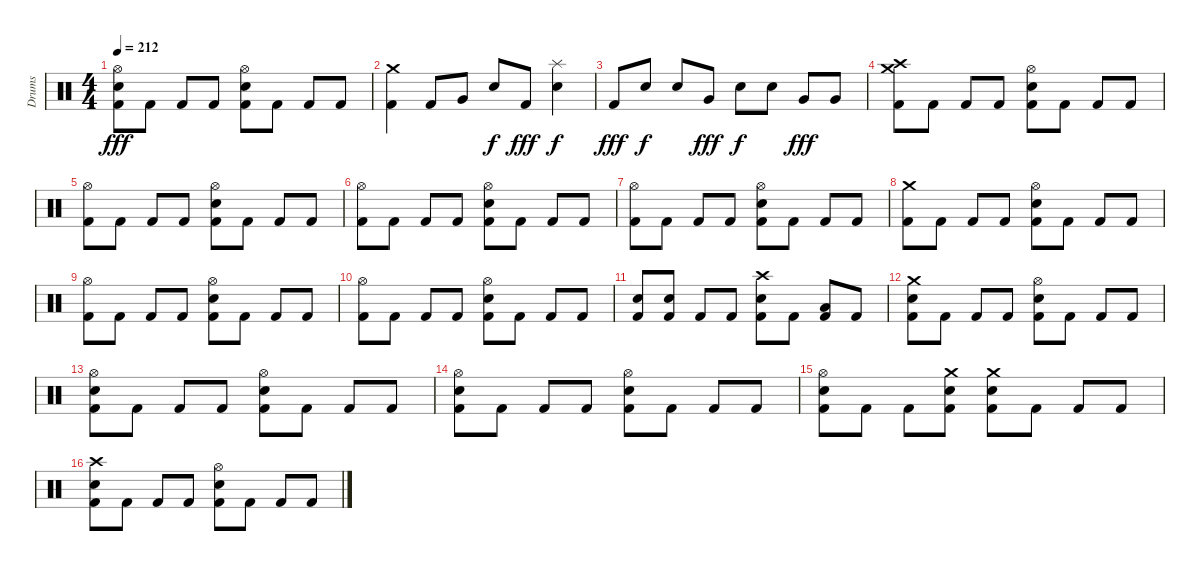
\track ("Drums" "Drums") {instrument percussion}
\staff {score}
\articulation defaults
\ts (4 4)
\tempo 212
\clef neutral
\ks c
("Hi-Hat (open)" "Snare (hit) 2" "Kick (hit) 2").8{dy fff} "Kick (hit) 2".8 "Kick (hit) 2".8 "Kick (hit) 2".8 ("Hi-Hat (open)" "Snare (hit) 2" "Kick (hit) 2").8 "Kick (hit) 2".8 "Kick (hit) 2".8 "Kick (hit) 2".8 |
("Crash medium (hit)" "Kick (hit) 2").4 "Kick (hit) 2".8 "Very Low Tom (hit)".8 "Snare (hit) 2".8{dy f} "Kick (hit) 2".8{dy fff} ("Splash (hit)" "Snare (hit) 2").4{dy f} |
"Kick (hit) 2".8{dy fff} "Snare (hit) 2".8{dy f} "Snare (hit) 2".8 "Very Low Tom (hit)".8{dy fff} "Snare (hit) 2".8{dy f} "Snare (hit) 2".8 "Very Low Tom (hit)".8{dy fff} "Very Low Tom (hit)".8 |
("Crash medium (hit)" "Crash high (hit)" "Kick (hit) 2").8 "Kick (hit) 2".8 "Kick (hit) 2".8 "Kick (hit) 2".8 ("Hi-Hat (open)" "Snare (hit) 2" "Kick (hit) 2").8 "Kick (hit) 2".8 "Kick (hit) 2".8 "Kick (hit) 2".8 |
("Hi-Hat (open)" "Kick (hit) 2").8 "Kick (hit) 2".8 "Kick (hit) 2".8 "Kick (hit) 2".8 ("Hi-Hat (open)" "Snare (hit) 2" "Kick (hit) 2").8 "Kick (hit) 2".8 "Kick (hit) 2".8 "Kick (hit) 2".8 |
("Hi-Hat (open)" "Kick (hit) 2").8 "Kick (hit) 2".8 "Kick (hit) 2".8 "Kick (hit) 2".8 ("Hi-Hat (open)" "Snare (hit) 2" "Kick (hit) 2").8 "Kick (hit) 2".8 "Kick (hit) 2".8 "Kick (hit) 2".8 |
("Hi-Hat (open)" "Kick (hit) 2").8 "Kick (hit) 2".8 "Kick (hit) 2".8 "Kick (hit) 2".8 ("Hi-Hat (open)" "Snare (hit) 2" "Kick (hit) 2").8 "Kick (hit) 2".8 "Kick (hit) 2".8 "Kick (hit) 2".8 |
("Crash medium (hit)" "Kick (hit) 2").8 "Kick (hit) 2".8 "Kick (hit) 2".8 "Kick (hit) 2".8 ("Hi-Hat (open)" "Snare (hit) 2" "Kick (hit) 2").8 "Kick (hit) 2".8 "Kick (hit) 2".8 "Kick (hit) 2".8 |
("Hi-Hat (open)" "Kick (hit) 2").8 "Kick (hit) 2".8 "Kick (hit) 2".8 "Kick (hit) 2".8 ("Hi-Hat (open)" "Snare (hit) 2" "Kick (hit) 2").8 "Kick (hit) 2".8 "Kick (hit) 2".8 "Kick (hit) 2".8 |
("Hi-Hat (open)" "Kick (hit) 2").8 "Kick (hit) 2".8 "Kick (hit) 2".8 "Kick (hit) 2".8 ("Hi-Hat (open)" "Snare (hit) 2" "Kick (hit) 2").8 "Kick (hit) 2".8 "Kick (hit) 2".8 "Kick (hit) 2".8 |
("Snare (hit) 2" "Kick (hit) 2").8 ("Snare (hit) 2" "Kick (hit) 2").8 "Kick (hit) 2".8 "Kick (hit) 2".8 ("Crash high (hit)" "Snare (hit) 2" "Kick (hit) 2").8 "Kick (hit) 2".8 ("Low Floor Tom (hit)" "Kick (hit) 2").8 "Kick (hit) 2".8 |
("Crash medium (hit)" "Snare (hit) 2" "Kick (hit) 2").8 "Kick (hit) 2".8 "Kick (hit) 2".8 "Kick (hit) 2".8 ("Hi-Hat (open)" "Snare (hit) 2" "Kick (hit) 2").8 "Kick (hit) 2".8 "Kick (hit) 2".8 "Kick (hit) 2".8 |
("Hi-Hat (open)" "Snare (hit) 2" "Kick (hit) 2").8 "Kick (hit) 2".8 "Kick (hit) 2".8 "Kick (hit) 2".8 ("Hi-Hat (open)" "Snare (hit) 2" "Kick (hit) 2").8 "Kick (hit) 2".8 "Kick (hit) 2".8 "Kick (hit) 2".8 |
("Hi-Hat (open)" "Snare (hit) 2" "Kick (hit) 2").8 "Kick (hit) 2".8 "Kick (hit) 2".8 "Kick (hit) 2".8 ("Hi-Hat (open)" "Snare (hit) 2" "Kick (hit) 2").8 "Kick (hit) 2".8 "Kick (hit) 2".8 "Kick (hit) 2".8 |
("Hi-Hat (open)" "Snare (hit) 2" "Kick (hit) 2").8 "Kick (hit) 2".8 "Kick (hit) 2".8 ("Crash medium (hit)" "Snare (hit) 2" "Kick (hit) 2").8 ("Crash medium (hit)" "Snare (hit) 2" "Kick (hit) 2").8 "Kick (hit) 2".8 "Kick (hit) 2".8 "Kick (hit) 2".8 |
("Crash high (hit)" "Snare (hit) 2" "Kick (hit) 2").8 "Kick (hit) 2".8 "Kick (hit) 2".8 "Kick (hit) 2".8 ("Hi-Hat (open)" "Snare (hit) 2" "Kick (hit) 2").8 "Kick (hit) 2".8 "Kick (hit) 2".8 "Kick (hit) 2".8
